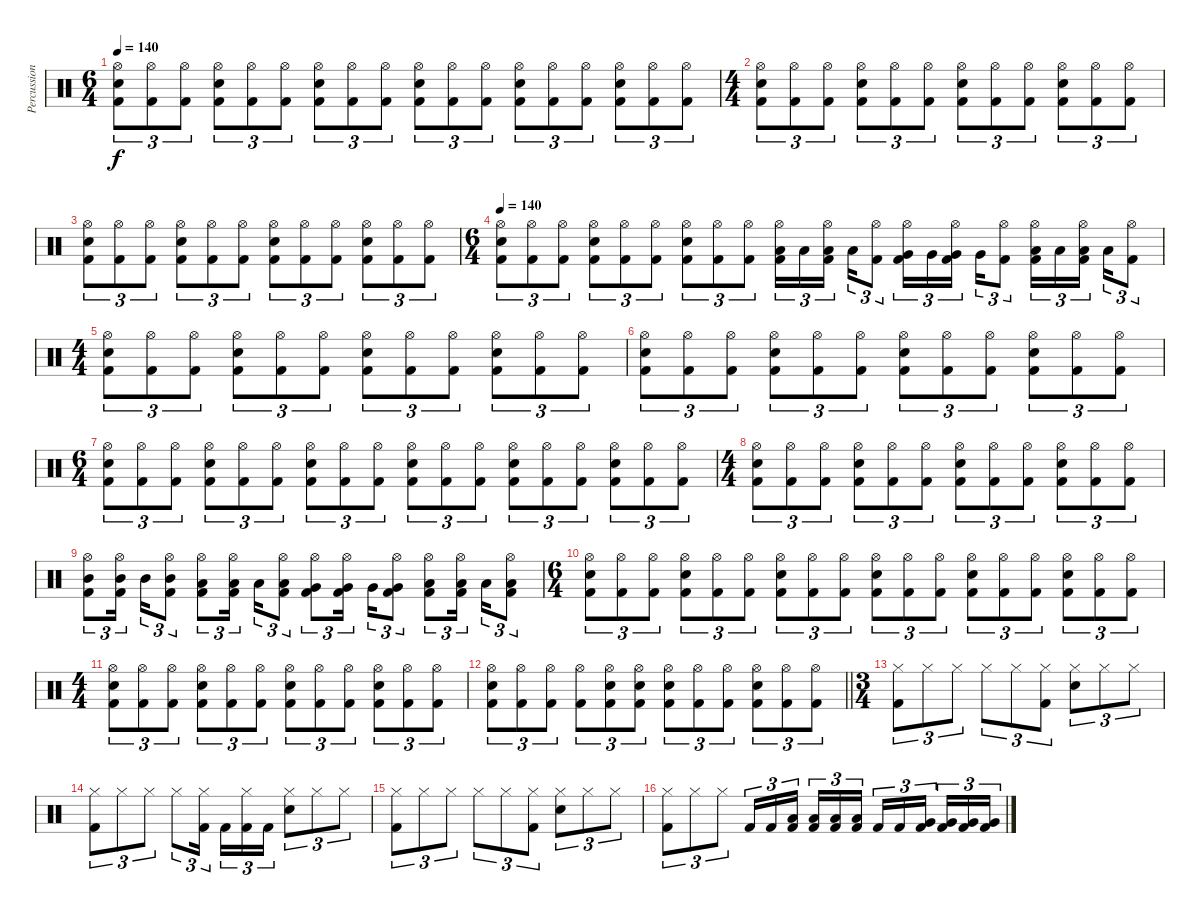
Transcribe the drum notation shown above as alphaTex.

\track ("Percussion" "Percussion") {instrument percussion}
\staff {score}
\articulation defaults
\ts (6 4)
\tempo 140
\clef neutral
\ks c
("Hi-Hat (open)" "Snare (hit) 2" "Kick (hit) 2").8{tu (3 2) dy f} ("Hi-Hat (open)" "Kick (hit) 2").8{tu (3 2)} ("Hi-Hat (open)" "Kick (hit) 2").8{tu (3 2)} ("Hi-Hat (open)" "Snare (hit) 2" "Kick (hit) 2").8{tu (3 2)} ("Hi-Hat (open)" "Kick (hit) 2").8{tu (3 2)} ("Hi-Hat (open)" "Kick (hit) 2").8{tu (3 2)} ("Hi-Hat (open)" "Snare (hit) 2" "Kick (hit) 2").8{tu (3 2)} ("Hi-Hat (open)" "Kick (hit) 2").8{tu (3 2)} ("Hi-Hat (open)" "Kick (hit) 2").8{tu (3 2)} ("Hi-Hat (open)" "Snare (hit) 2" "Kick (hit) 2").8{tu (3 2)} ("Hi-Hat (open)" "Kick (hit) 2").8{tu (3 2)} ("Hi-Hat (open)" "Kick (hit) 2").8{tu (3 2)} ("Hi-Hat (open)" "Snare (hit) 2" "Kick (hit) 2").8{tu (3 2)} ("Hi-Hat (open)" "Kick (hit) 2").8{tu (3 2)} ("Hi-Hat (open)" "Kick (hit) 2").8{tu (3 2)} ("Hi-Hat (open)" "Snare (hit) 2" "Kick (hit) 2").8{tu (3 2)} ("Hi-Hat (open)" "Kick (hit) 2").8{tu (3 2)} ("Hi-Hat (open)" "Kick (hit) 2").8{tu (3 2)} |
\ts (4 4)
("Hi-Hat (open)" "Snare (hit) 2" "Kick (hit) 2").8{tu (3 2)} ("Hi-Hat (open)" "Kick (hit) 2").8{tu (3 2)} ("Hi-Hat (open)" "Kick (hit) 2").8{tu (3 2)} ("Hi-Hat (open)" "Snare (hit) 2" "Kick (hit) 2").8{tu (3 2)} ("Hi-Hat (open)" "Kick (hit) 2").8{tu (3 2)} ("Hi-Hat (open)" "Kick (hit) 2").8{tu (3 2)} ("Hi-Hat (open)" "Snare (hit) 2" "Kick (hit) 2").8{tu (3 2)} ("Hi-Hat (open)" "Kick (hit) 2").8{tu (3 2)} ("Hi-Hat (open)" "Kick (hit) 2").8{tu (3 2)} ("Hi-Hat (open)" "Snare (hit) 2" "Kick (hit) 2").8{tu (3 2)} ("Hi-Hat (open)" "Kick (hit) 2").8{tu (3 2)} ("Hi-Hat (open)" "Kick (hit) 2").8{tu (3 2)} |
("Hi-Hat (open)" "Snare (hit) 2" "Kick (hit) 2").8{tu (3 2)} ("Hi-Hat (open)" "Kick (hit) 2").8{tu (3 2)} ("Hi-Hat (open)" "Kick (hit) 2").8{tu (3 2)} ("Hi-Hat (open)" "Snare (hit) 2" "Kick (hit) 2").8{tu (3 2)} ("Hi-Hat (open)" "Kick (hit) 2").8{tu (3 2)} ("Hi-Hat (open)" "Kick (hit) 2").8{tu (3 2)} ("Hi-Hat (open)" "Snare (hit) 2" "Kick (hit) 2").8{tu (3 2)} ("Hi-Hat (open)" "Kick (hit) 2").8{tu (3 2)} ("Hi-Hat (open)" "Kick (hit) 2").8{tu (3 2)} ("Hi-Hat (open)" "Snare (hit) 2" "Kick (hit) 2").8{tu (3 2)} ("Hi-Hat (open)" "Kick (hit) 2").8{tu (3 2)} ("Hi-Hat (open)" "Kick (hit) 2").8{tu (3 2)} |
\ts (6 4)
\tempo 140
("Hi-Hat (open)" "Snare (hit) 2" "Kick (hit) 2").8{tu (3 2)} ("Hi-Hat (open)" "Kick (hit) 2").8{tu (3 2)} ("Hi-Hat (open)" "Kick (hit) 2").8{tu (3 2)} ("Hi-Hat (open)" "Snare (hit) 2" "Kick (hit) 2").8{tu (3 2)} ("Hi-Hat (open)" "Kick (hit) 2").8{tu (3 2)} ("Hi-Hat (open)" "Kick (hit) 2").8{tu (3 2)} ("Hi-Hat (open)" "Snare (hit) 2" "Kick (hit) 2").8{tu (3 2)} ("Hi-Hat (open)" "Kick (hit) 2").8{tu (3 2)} ("Hi-Hat (open)" "Kick (hit) 2").8{tu (3 2)} ("Hi-Hat (open)" "Low Tom (hit)" "Kick (hit) 2").16{tu (3 2)} "Low Tom (hit)".16{tu (3 2)} ("Hi-Hat (open)" "Low Tom (hit)" "Kick (hit) 2").16{tu (3 2)} "Low Tom (hit)".16{tu (3 2)} ("Hi-Hat (open)" "Kick (hit) 2").8{tu (3 2)} ("Hi-Hat (open)" "Very Low Tom (hit)" "Kick (hit) 2").16{tu (3 2)} "Very Low Tom (hit)".16{tu (3 2)} ("Hi-Hat (open)" "Very Low Tom (hit)" "Kick (hit) 2").16{tu (3 2)} "Very Low Tom (hit)".16{tu (3 2)} ("Hi-Hat (open)" "Kick (hit) 2").8{tu (3 2)} ("Hi-Hat (open)" "Low Floor Tom (hit)" "Kick (hit) 2").16{tu (3 2)} "Low Floor Tom (hit)".16{tu (3 2)} ("Hi-Hat (open)" "Low Floor Tom (hit)" "Kick (hit) 2").16{tu (3 2)} "Low Floor Tom (hit)".16{tu (3 2)} ("Hi-Hat (open)" "Kick (hit) 2").8{tu (3 2)} |
\ts (4 4)
("Hi-Hat (open)" "Snare (hit) 2" "Kick (hit) 2").8{tu (3 2)} ("Hi-Hat (open)" "Kick (hit) 2").8{tu (3 2)} ("Hi-Hat (open)" "Kick (hit) 2").8{tu (3 2)} ("Hi-Hat (open)" "Snare (hit) 2" "Kick (hit) 2").8{tu (3 2)} ("Hi-Hat (open)" "Kick (hit) 2").8{tu (3 2)} ("Hi-Hat (open)" "Kick (hit) 2").8{tu (3 2)} ("Hi-Hat (open)" "Snare (hit) 2" "Kick (hit) 2").8{tu (3 2)} ("Hi-Hat (open)" "Kick (hit) 2").8{tu (3 2)} ("Hi-Hat (open)" "Kick (hit) 2").8{tu (3 2)} ("Hi-Hat (open)" "Snare (hit) 2" "Kick (hit) 2").8{tu (3 2)} ("Hi-Hat (open)" "Kick (hit) 2").8{tu (3 2)} ("Hi-Hat (open)" "Kick (hit) 2").8{tu (3 2)} |
("Hi-Hat (open)" "Snare (hit) 2" "Kick (hit) 2").8{tu (3 2)} ("Hi-Hat (open)" "Kick (hit) 2").8{tu (3 2)} ("Hi-Hat (open)" "Kick (hit) 2").8{tu (3 2)} ("Hi-Hat (open)" "Snare (hit) 2" "Kick (hit) 2").8{tu (3 2)} ("Hi-Hat (open)" "Kick (hit) 2").8{tu (3 2)} ("Hi-Hat (open)" "Kick (hit) 2").8{tu (3 2)} ("Hi-Hat (open)" "Snare (hit) 2" "Kick (hit) 2").8{tu (3 2)} ("Hi-Hat (open)" "Kick (hit) 2").8{tu (3 2)} ("Hi-Hat (open)" "Kick (hit) 2").8{tu (3 2)} ("Hi-Hat (open)" "Snare (hit) 2" "Kick (hit) 2").8{tu (3 2)} ("Hi-Hat (open)" "Kick (hit) 2").8{tu (3 2)} ("Hi-Hat (open)" "Kick (hit) 2").8{tu (3 2)} |
\ts (6 4)
("Hi-Hat (open)" "Snare (hit) 2" "Kick (hit) 2").8{tu (3 2)} ("Hi-Hat (open)" "Kick (hit) 2").8{tu (3 2)} ("Hi-Hat (open)" "Kick (hit) 2").8{tu (3 2)} ("Hi-Hat (open)" "Snare (hit) 2" "Kick (hit) 2").8{tu (3 2)} ("Hi-Hat (open)" "Kick (hit) 2").8{tu (3 2)} ("Hi-Hat (open)" "Kick (hit) 2").8{tu (3 2)} ("Hi-Hat (open)" "Snare (hit) 2" "Kick (hit) 2").8{tu (3 2)} ("Hi-Hat (open)" "Kick (hit) 2").8{tu (3 2)} ("Hi-Hat (open)" "Kick (hit) 2").8{tu (3 2)} ("Hi-Hat (open)" "Snare (hit) 2" "Kick (hit) 2").8{tu (3 2)} ("Hi-Hat (open)" "Kick (hit) 2").8{tu (3 2)} ("Hi-Hat (open)" "Kick (hit) 2").8{tu (3 2)} ("Hi-Hat (open)" "Snare (hit) 2" "Kick (hit) 2").8{tu (3 2)} ("Hi-Hat (open)" "Kick (hit) 2").8{tu (3 2)} ("Hi-Hat (open)" "Kick (hit) 2").8{tu (3 2)} ("Hi-Hat (open)" "Snare (hit) 2" "Kick (hit) 2").8{tu (3 2)} ("Hi-Hat (open)" "Kick (hit) 2").8{tu (3 2)} ("Hi-Hat (open)" "Kick (hit) 2").8{tu (3 2)} |
\ts (4 4)
("Hi-Hat (open)" "Snare (hit) 2" "Kick (hit) 2").8{tu (3 2)} ("Hi-Hat (open)" "Kick (hit) 2").8{tu (3 2)} ("Hi-Hat (open)" "Kick (hit) 2").8{tu (3 2)} ("Hi-Hat (open)" "Snare (hit) 2" "Kick (hit) 2").8{tu (3 2)} ("Hi-Hat (open)" "Kick (hit) 2").8{tu (3 2)} ("Hi-Hat (open)" "Kick (hit) 2").8{tu (3 2)} ("Hi-Hat (open)" "Snare (hit) 2" "Kick (hit) 2").8{tu (3 2)} ("Hi-Hat (open)" "Kick (hit) 2").8{tu (3 2)} ("Hi-Hat (open)" "Kick (hit) 2").8{tu (3 2)} ("Hi-Hat (open)" "Snare (hit) 2" "Kick (hit) 2").8{tu (3 2)} ("Hi-Hat (open)" "Kick (hit) 2").8{tu (3 2)} ("Hi-Hat (open)" "Kick (hit) 2").8{tu (3 2)} |
("Hi-Hat (open)" "Mid Tom (hit)" "Kick (hit) 2").8{tu (3 2)} ("Hi-Hat (open)" "Mid Tom (hit)" "Kick (hit) 2").16{tu (3 2)} "Mid Tom (hit)".16{tu (3 2)} ("Hi-Hat (open)" "Mid Tom (hit)" "Kick (hit) 2").8{tu (3 2)} ("Hi-Hat (open)" "Low Tom (hit)" "Kick (hit) 2").8{tu (3 2)} ("Hi-Hat (open)" "Low Tom (hit)" "Kick (hit) 2").16{tu (3 2)} "Low Tom (hit)".16{tu (3 2)} ("Hi-Hat (open)" "Low Tom (hit)" "Kick (hit) 2").8{tu (3 2)} ("Hi-Hat (open)" "Very Low Tom (hit)" "Kick (hit) 2").8{tu (3 2)} ("Hi-Hat (open)" "Very Low Tom (hit)" "Kick (hit) 2").16{tu (3 2)} "Very Low Tom (hit)".16{tu (3 2)} ("Hi-Hat (open)" "Very Low Tom (hit)" "Kick (hit) 2").8{tu (3 2)} ("Hi-Hat (open)" "Low Floor Tom (hit)" "Kick (hit) 2").8{tu (3 2)} ("Hi-Hat (open)" "Low Floor Tom (hit)" "Kick (hit) 2").16{tu (3 2)} "Low Floor Tom (hit)".16{tu (3 2)} ("Hi-Hat (open)" "Low Floor Tom (hit)" "Kick (hit) 2").8{tu (3 2)} |
\ts (6 4)
("Hi-Hat (open)" "Snare (hit) 2" "Kick (hit) 2").8{tu (3 2)} ("Hi-Hat (open)" "Kick (hit) 2").8{tu (3 2)} ("Hi-Hat (open)" "Kick (hit) 2").8{tu (3 2)} ("Hi-Hat (open)" "Snare (hit) 2" "Kick (hit) 2").8{tu (3 2)} ("Hi-Hat (open)" "Kick (hit) 2").8{tu (3 2)} ("Hi-Hat (open)" "Kick (hit) 2").8{tu (3 2)} ("Hi-Hat (open)" "Snare (hit) 2" "Kick (hit) 2").8{tu (3 2)} ("Hi-Hat (open)" "Kick (hit) 2").8{tu (3 2)} ("Hi-Hat (open)" "Kick (hit) 2").8{tu (3 2)} ("Hi-Hat (open)" "Snare (hit) 2" "Kick (hit) 2").8{tu (3 2)} ("Hi-Hat (open)" "Kick (hit) 2").8{tu (3 2)} ("Hi-Hat (open)" "Kick (hit) 2").8{tu (3 2)} ("Hi-Hat (open)" "Snare (hit) 2" "Kick (hit) 2").8{tu (3 2)} ("Hi-Hat (open)" "Kick (hit) 2").8{tu (3 2)} ("Hi-Hat (open)" "Kick (hit) 2").8{tu (3 2)} ("Hi-Hat (open)" "Snare (hit) 2" "Kick (hit) 2").8{tu (3 2)} ("Hi-Hat (open)" "Kick (hit) 2").8{tu (3 2)} ("Hi-Hat (open)" "Kick (hit) 2").8{tu (3 2)} |
\ts (4 4)
("Hi-Hat (open)" "Snare (hit) 2" "Kick (hit) 2").8{tu (3 2)} ("Hi-Hat (open)" "Kick (hit) 2").8{tu (3 2)} ("Hi-Hat (open)" "Kick (hit) 2").8{tu (3 2)} ("Hi-Hat (open)" "Snare (hit) 2" "Kick (hit) 2").8{tu (3 2)} ("Hi-Hat (open)" "Kick (hit) 2").8{tu (3 2)} ("Hi-Hat (open)" "Kick (hit) 2").8{tu (3 2)} ("Hi-Hat (open)" "Snare (hit) 2" "Kick (hit) 2").8{tu (3 2)} ("Hi-Hat (open)" "Kick (hit) 2").8{tu (3 2)} ("Hi-Hat (open)" "Kick (hit) 2").8{tu (3 2)} ("Hi-Hat (open)" "Snare (hit) 2" "Kick (hit) 2").8{tu (3 2)} ("Hi-Hat (open)" "Kick (hit) 2").8{tu (3 2)} ("Hi-Hat (open)" "Kick (hit) 2").8{tu (3 2)} |
\barLineRight lightlight
("Hi-Hat (open)" "Snare (hit) 2" "Kick (hit) 2").8{tu (3 2)} ("Hi-Hat (open)" "Kick (hit) 2").8{tu (3 2)} ("Hi-Hat (open)" "Kick (hit) 2").8{tu (3 2)} ("Hi-Hat (open)" "Kick (hit) 2").8{tu (3 2)} ("Hi-Hat (open)" "Snare (hit) 2" "Kick (hit) 2").8{tu (3 2)} ("Hi-Hat (open)" "Snare (hit) 2" "Kick (hit) 2").8{tu (3 2)} ("Hi-Hat (open)" "Snare (hit) 2" "Kick (hit) 2").8{tu (3 2)} ("Hi-Hat (open)" "Kick (hit) 2").8{tu (3 2)} ("Hi-Hat (open)" "Kick (hit) 2").8{tu (3 2)} ("Hi-Hat (open)" "Snare (hit) 2" "Kick (hit) 2").8{tu (3 2)} ("Hi-Hat (open)" "Kick (hit) 2").8{tu (3 2)} ("Hi-Hat (open)" "Kick (hit) 2").8{tu (3 2)} |
\ts (3 4)
("Hi-Hat (closed)" "Kick (hit) 2").8{tu (3 2)} "Hi-Hat (closed)".8{tu (3 2)} "Hi-Hat (closed)".8{tu (3 2)} "Hi-Hat (closed)".8{tu (3 2)} "Hi-Hat (closed)".8{tu (3 2)} ("Hi-Hat (closed)" "Kick (hit) 2").8{tu (3 2)} ("Hi-Hat (closed)" "Snare (hit) 2").8{tu (3 2)} "Hi-Hat (closed)".8{tu (3 2)} "Hi-Hat (closed)".8{tu (3 2)} |
("Hi-Hat (closed)" "Kick (hit) 2").8{tu (3 2)} "Hi-Hat (closed)".8{tu (3 2)} "Hi-Hat (closed)".8{tu (3 2)} "Hi-Hat (closed)".8{tu (3 2)} ("Hi-Hat (closed)" "Kick (hit) 2").16{tu (3 2)} "Kick (hit) 2".16{tu (3 2)} ("Hi-Hat (closed)" "Kick (hit) 2").16{tu (3 2)} "Kick (hit) 2".16{tu (3 2)} ("Hi-Hat (closed)" "Snare (hit) 2").8{tu (3 2)} "Hi-Hat (closed)".8{tu (3 2)} "Hi-Hat (closed)".8{tu (3 2)} |
("Hi-Hat (closed)" "Kick (hit) 2").8{tu (3 2)} "Hi-Hat (closed)".8{tu (3 2)} "Hi-Hat (closed)".8{tu (3 2)} "Hi-Hat (closed)".8{tu (3 2)} "Hi-Hat (closed)".8{tu (3 2)} ("Hi-Hat (closed)" "Kick (hit) 2").8{tu (3 2)} ("Hi-Hat (closed)" "Snare (hit) 2").8{tu (3 2)} "Hi-Hat (closed)".8{tu (3 2)} "Hi-Hat (closed)".8{tu (3 2)} |
("Hi-Hat (closed)" "Kick (hit) 2").8{tu (3 2)} "Hi-Hat (closed)".8{tu (3 2)} "Hi-Hat (closed)".8{tu (3 2)} "Kick (hit) 2".16{tu (3 2)} "Kick (hit) 2".16{tu (3 2)} ("Low Tom (hit)" "Kick (hit) 2").16{tu (3 2)} ("Low Tom (hit)" "Kick (hit) 2").16{tu (3 2)} ("Low Tom (hit)" "Kick (hit) 2").16{tu (3 2)} ("Low Tom (hit)" "Kick (hit) 2").16{tu (3 2)} "Kick (hit) 2".16{tu (3 2)} "Kick (hit) 2".16{tu (3 2)} ("Very Low Tom (hit)" "Kick (hit) 2").16{tu (3 2)} ("Very Low Tom (hit)" "Kick (hit) 2").16{tu (3 2)} ("Very Low Tom (hit)" "Kick (hit) 2").16{tu (3 2)} ("Very Low Tom (hit)" "Kick (hit) 2").16{tu (3 2)}
